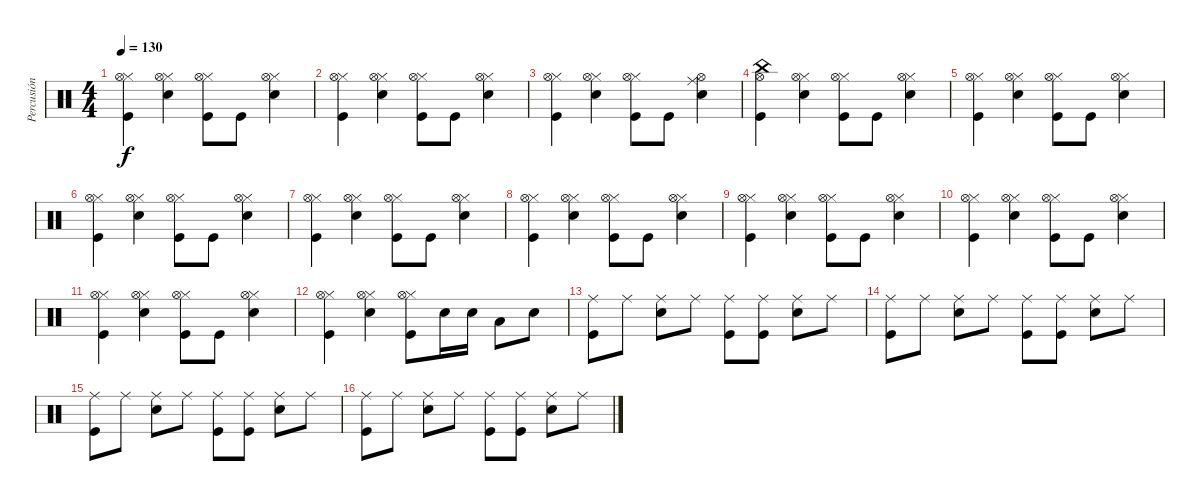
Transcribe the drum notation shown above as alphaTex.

\track ("Percusión" "Percusión") {instrument percussion}
\staff {score}
\articulation defaults
\ts (4 4)
\tempo 130
\clef neutral
\ks c
("Kick (hit)" "Hi-Hat (closed)" "Hi-Hat (open)").4{dy f} ("Snare (hit) 2" "Hi-Hat (closed)" "Hi-Hat (open)").4 ("Kick (hit)" "Hi-Hat (closed)" "Hi-Hat (open)").8 "Kick (hit)".8 ("Snare (hit) 2" "Hi-Hat (closed)" "Hi-Hat (open)").4 |
("Kick (hit)" "Hi-Hat (closed)" "Hi-Hat (open)").4 ("Snare (hit) 2" "Hi-Hat (closed)" "Hi-Hat (open)").4 ("Kick (hit)" "Hi-Hat (closed)" "Hi-Hat (open)").8 "Kick (hit)".8 ("Snare (hit) 2" "Hi-Hat (closed)" "Hi-Hat (open)").4 |
("Kick (hit)" "Hi-Hat (closed)" "Hi-Hat (open)").4 ("Snare (hit) 2" "Hi-Hat (closed)" "Hi-Hat (open)").4 ("Kick (hit)" "Hi-Hat (closed)" "Hi-Hat (open)").8 "Kick (hit)".8 ("Snare (hit) 2" "Ride (middle)" "Hi-Hat (open)").4 |
("Kick (hit)" "China (hit)" "Hi-Hat (open)").4 ("Snare (hit) 2" "Hi-Hat (closed)" "Hi-Hat (open)").4 ("Kick (hit)" "Hi-Hat (closed)" "Hi-Hat (open)").8 "Kick (hit)".8 ("Snare (hit) 2" "Hi-Hat (closed)" "Hi-Hat (open)").4 |
("Kick (hit)" "Hi-Hat (closed)" "Hi-Hat (open)").4 ("Snare (hit) 2" "Hi-Hat (closed)" "Hi-Hat (open)").4 ("Kick (hit)" "Hi-Hat (closed)" "Hi-Hat (open)").8 "Kick (hit)".8 ("Snare (hit) 2" "Hi-Hat (closed)" "Hi-Hat (open)").4 |
("Kick (hit)" "Hi-Hat (closed)" "Hi-Hat (open)").4 ("Snare (hit) 2" "Hi-Hat (closed)" "Hi-Hat (open)").4 ("Kick (hit)" "Hi-Hat (closed)" "Hi-Hat (open)").8 "Kick (hit)".8 ("Snare (hit) 2" "Hi-Hat (closed)" "Hi-Hat (open)").4 |
("Kick (hit)" "Hi-Hat (closed)" "Hi-Hat (open)").4 ("Snare (hit) 2" "Hi-Hat (closed)" "Hi-Hat (open)").4 ("Kick (hit)" "Hi-Hat (closed)" "Hi-Hat (open)").8 "Kick (hit)".8 ("Snare (hit) 2" "Hi-Hat (closed)" "Hi-Hat (open)").4 |
("Kick (hit)" "Hi-Hat (closed)" "Hi-Hat (open)").4 ("Snare (hit) 2" "Hi-Hat (closed)" "Hi-Hat (open)").4 ("Kick (hit)" "Hi-Hat (closed)" "Hi-Hat (open)").8 "Kick (hit)".8 ("Snare (hit) 2" "Hi-Hat (closed)" "Hi-Hat (open)").4 |
("Kick (hit)" "Hi-Hat (closed)" "Hi-Hat (open)").4 ("Snare (hit) 2" "Hi-Hat (closed)" "Hi-Hat (open)").4 ("Kick (hit)" "Hi-Hat (closed)" "Hi-Hat (open)").8 "Kick (hit)".8 ("Snare (hit) 2" "Hi-Hat (closed)" "Hi-Hat (open)").4 |
("Kick (hit)" "Hi-Hat (closed)" "Hi-Hat (open)").4 ("Snare (hit) 2" "Hi-Hat (closed)" "Hi-Hat (open)").4 ("Kick (hit)" "Hi-Hat (closed)" "Hi-Hat (open)").8 "Kick (hit)".8 ("Snare (hit) 2" "Hi-Hat (closed)" "Hi-Hat (open)").4 |
("Kick (hit)" "Hi-Hat (closed)" "Hi-Hat (open)").4 ("Snare (hit) 2" "Hi-Hat (closed)" "Hi-Hat (open)").4 ("Kick (hit)" "Hi-Hat (closed)" "Hi-Hat (open)").8 "Kick (hit)".8 ("Snare (hit) 2" "Hi-Hat (closed)" "Hi-Hat (open)").4 |
("Kick (hit)" "Hi-Hat (closed)" "Hi-Hat (open)").4 ("Snare (hit) 2" "Hi-Hat (closed)" "Hi-Hat (open)").4 ("Kick (hit)" "Hi-Hat (closed)" "Hi-Hat (open)").8 "Snare (hit) 2".16 "Snare (hit) 2".16 "Low Tom (hit)".8 "Snare (hit) 2".8 |
("Kick (hit)" "Ride (middle)").8 "Ride (middle)".8 ("Ride (middle)" "Snare (hit) 2").8 "Ride (middle)".8 ("Ride (middle)" "Kick (hit)").8 ("Ride (middle)" "Kick (hit)").8 ("Ride (middle)" "Snare (hit) 2").8 "Ride (middle)".8 |
("Kick (hit)" "Ride (middle)").8 "Ride (middle)".8 ("Ride (middle)" "Snare (hit) 2").8 "Ride (middle)".8 ("Ride (middle)" "Kick (hit)").8 ("Ride (middle)" "Kick (hit)").8 ("Ride (middle)" "Snare (hit) 2").8 "Ride (middle)".8 |
("Kick (hit)" "Ride (middle)").8 "Ride (middle)".8 ("Ride (middle)" "Snare (hit) 2").8 "Ride (middle)".8 ("Ride (middle)" "Kick (hit)").8 ("Ride (middle)" "Kick (hit)").8 ("Ride (middle)" "Snare (hit) 2").8 "Ride (middle)".8 |
("Kick (hit)" "Ride (middle)").8 "Ride (middle)".8 ("Ride (middle)" "Snare (hit) 2").8 "Ride (middle)".8 ("Ride (middle)" "Kick (hit)").8 ("Ride (middle)" "Kick (hit)").8 ("Ride (middle)" "Snare (hit) 2").8 "Ride (middle)".8
